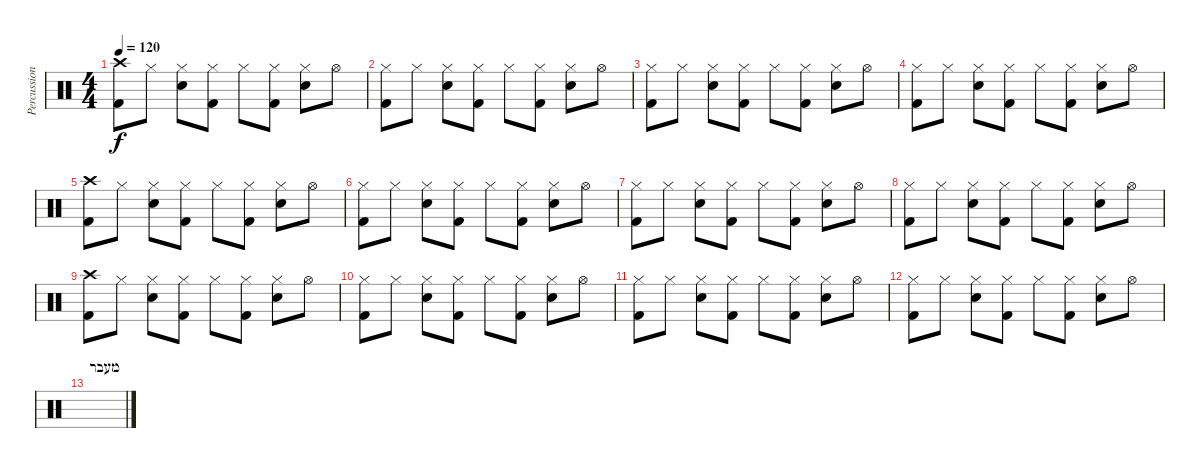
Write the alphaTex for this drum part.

\track ("Percussion" "Percussion") {instrument percussion}
\staff {score}
\articulation defaults
\ts (4 4)
\tempo 120
\clef neutral
\ks c
("Crash high (hit)" "Kick (hit) 2").8{dy f} "Hi-Hat (closed)".8 ("Hi-Hat (closed)" "Electric Snare (hit)").8 ("Hi-Hat (closed)" "Kick (hit) 2").8 "Hi-Hat (closed)".8 ("Hi-Hat (closed)" "Kick (hit) 2").8 ("Hi-Hat (closed)" "Electric Snare (hit)").8 "Hi-Hat (open)".8 |
("Hi-Hat (closed)" "Kick (hit) 2").8 "Hi-Hat (closed)".8 ("Hi-Hat (closed)" "Electric Snare (hit)").8 ("Hi-Hat (closed)" "Kick (hit) 2").8 "Hi-Hat (closed)".8 ("Hi-Hat (closed)" "Kick (hit) 2").8 ("Hi-Hat (closed)" "Electric Snare (hit)").8 "Hi-Hat (open)".8 |
("Hi-Hat (closed)" "Kick (hit) 2").8 "Hi-Hat (closed)".8 ("Hi-Hat (closed)" "Electric Snare (hit)").8 ("Hi-Hat (closed)" "Kick (hit) 2").8 "Hi-Hat (closed)".8 ("Hi-Hat (closed)" "Kick (hit) 2").8 ("Hi-Hat (closed)" "Electric Snare (hit)").8 "Hi-Hat (open)".8 |
("Hi-Hat (closed)" "Kick (hit) 2").8 "Hi-Hat (closed)".8 ("Hi-Hat (closed)" "Electric Snare (hit)").8 ("Hi-Hat (closed)" "Kick (hit) 2").8 "Hi-Hat (closed)".8 ("Hi-Hat (closed)" "Kick (hit) 2").8 ("Hi-Hat (closed)" "Electric Snare (hit)").8 "Hi-Hat (open)".8 |
("Crash high (hit)" "Kick (hit) 2").8 "Hi-Hat (closed)".8 ("Hi-Hat (closed)" "Electric Snare (hit)").8 ("Hi-Hat (closed)" "Kick (hit) 2").8 "Hi-Hat (closed)".8 ("Hi-Hat (closed)" "Kick (hit) 2").8 ("Hi-Hat (closed)" "Electric Snare (hit)").8 "Hi-Hat (open)".8 |
("Hi-Hat (closed)" "Kick (hit) 2").8 "Hi-Hat (closed)".8 ("Hi-Hat (closed)" "Electric Snare (hit)").8 ("Hi-Hat (closed)" "Kick (hit) 2").8 "Hi-Hat (closed)".8 ("Hi-Hat (closed)" "Kick (hit) 2").8 ("Hi-Hat (closed)" "Electric Snare (hit)").8 "Hi-Hat (open)".8 |
("Hi-Hat (closed)" "Kick (hit) 2").8 "Hi-Hat (closed)".8 ("Hi-Hat (closed)" "Electric Snare (hit)").8 ("Hi-Hat (closed)" "Kick (hit) 2").8 "Hi-Hat (closed)".8 ("Hi-Hat (closed)" "Kick (hit) 2").8 ("Hi-Hat (closed)" "Electric Snare (hit)").8 "Hi-Hat (open)".8 |
("Hi-Hat (closed)" "Kick (hit) 2").8 "Hi-Hat (closed)".8 ("Hi-Hat (closed)" "Electric Snare (hit)").8 ("Hi-Hat (closed)" "Kick (hit) 2").8 "Hi-Hat (closed)".8 ("Hi-Hat (closed)" "Kick (hit) 2").8 ("Hi-Hat (closed)" "Electric Snare (hit)").8 "Hi-Hat (open)".8 |
("Crash high (hit)" "Kick (hit) 2").8 "Hi-Hat (closed)".8 ("Hi-Hat (closed)" "Electric Snare (hit)").8 ("Hi-Hat (closed)" "Kick (hit) 2").8 "Hi-Hat (closed)".8 ("Hi-Hat (closed)" "Kick (hit) 2").8 ("Hi-Hat (closed)" "Electric Snare (hit)").8 "Hi-Hat (open)".8 |
("Hi-Hat (closed)" "Kick (hit) 2").8 "Hi-Hat (closed)".8 ("Hi-Hat (closed)" "Electric Snare (hit)").8 ("Hi-Hat (closed)" "Kick (hit) 2").8 "Hi-Hat (closed)".8 ("Hi-Hat (closed)" "Kick (hit) 2").8 ("Hi-Hat (closed)" "Electric Snare (hit)").8 "Hi-Hat (open)".8 |
("Hi-Hat (closed)" "Kick (hit) 2").8 "Hi-Hat (closed)".8 ("Hi-Hat (closed)" "Electric Snare (hit)").8 ("Hi-Hat (closed)" "Kick (hit) 2").8 "Hi-Hat (closed)".8 ("Hi-Hat (closed)" "Kick (hit) 2").8 ("Hi-Hat (closed)" "Electric Snare (hit)").8 "Hi-Hat (open)".8 |
("Hi-Hat (closed)" "Kick (hit) 2").8 "Hi-Hat (closed)".8 ("Hi-Hat (closed)" "Electric Snare (hit)").8 ("Hi-Hat (closed)" "Kick (hit) 2").8 "Hi-Hat (closed)".8 ("Hi-Hat (closed)" "Kick (hit) 2").8 ("Hi-Hat (closed)" "Electric Snare (hit)").8 "Hi-Hat (open)".8 |
\section ("" "מעבר ")
